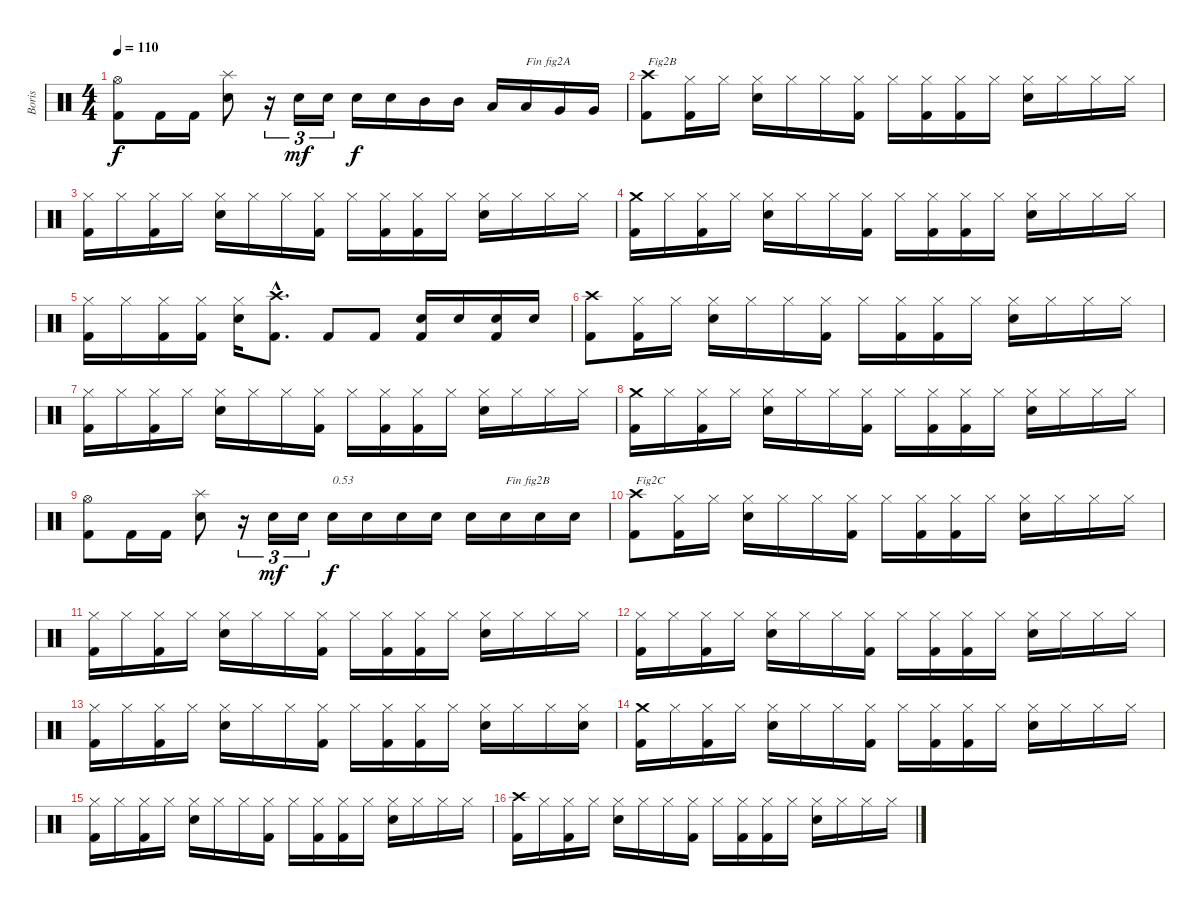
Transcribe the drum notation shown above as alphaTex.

\track ("Boris" "Boris") {instrument percussion}
\staff {score}
\articulation defaults
\ts (4 4)
\tempo 110
\clef neutral
\ks c
("Kick (hit) 2" "Hi-Hat (open)").8{dy f} "Kick (hit) 2".16 "Kick (hit) 2".16 ("Electric Snare (hit)" "Splash (hit)").8 r.16{tu (3 2)} "Electric Snare (hit)".16{tu (3 2) dy mf} "Electric Snare (hit)".16{tu (3 2)} "Electric Snare (hit)".16{dy f} "Electric Snare (hit)".16 "Mid Tom (hit)".16 "Mid Tom (hit)".16 "Low Tom (hit)".16 "Low Tom (hit)".16{txt "Fin fig2A"} "Very Low Tom (hit)".16 "Very Low Tom (hit)".16 |
("Kick (hit) 2" "Crash high (hit)").8{txt "Fig2B"} ("Kick (hit) 2" "Hi-Hat (closed)").16 "Hi-Hat (closed)".16 ("Electric Snare (hit)" "Hi-Hat (closed)").16 "Hi-Hat (closed)".16 "Hi-Hat (closed)".16 ("Kick (hit) 2" "Hi-Hat (closed)").16 "Hi-Hat (closed)".16 ("Kick (hit) 2" "Hi-Hat (closed)").16 ("Kick (hit) 2" "Hi-Hat (closed)").16 "Hi-Hat (closed)".16 ("Electric Snare (hit)" "Hi-Hat (closed)").16 "Hi-Hat (closed)".16 "Hi-Hat (closed)".16 "Hi-Hat (closed)".16 |
("Kick (hit) 2" "Hi-Hat (closed)").16 "Hi-Hat (closed)".16 ("Kick (hit) 2" "Hi-Hat (closed)").16 "Hi-Hat (closed)".16 ("Electric Snare (hit)" "Hi-Hat (closed)").16 "Hi-Hat (closed)".16 "Hi-Hat (closed)".16 ("Kick (hit) 2" "Hi-Hat (closed)").16 "Hi-Hat (closed)".16 ("Kick (hit) 2" "Hi-Hat (closed)").16 ("Kick (hit) 2" "Hi-Hat (closed)").16 "Hi-Hat (closed)".16 ("Electric Snare (hit)" "Hi-Hat (closed)").16 "Hi-Hat (closed)".16 "Hi-Hat (closed)".16 "Hi-Hat (closed)".16 |
("Kick (hit) 2" "Crash medium (hit)").16 "Hi-Hat (closed)".16 ("Kick (hit) 2" "Hi-Hat (closed)").16 "Hi-Hat (closed)".16 ("Electric Snare (hit)" "Hi-Hat (closed)").16 "Hi-Hat (closed)".16 "Hi-Hat (closed)".16 ("Kick (hit) 2" "Hi-Hat (closed)").16 "Hi-Hat (closed)".16 ("Kick (hit) 2" "Hi-Hat (closed)").16 ("Kick (hit) 2" "Hi-Hat (closed)").16 "Hi-Hat (closed)".16 ("Electric Snare (hit)" "Hi-Hat (closed)").16 "Hi-Hat (closed)".16 "Hi-Hat (closed)".16 "Hi-Hat (closed)".16 |
("Kick (hit) 2" "Hi-Hat (closed)").16 "Hi-Hat (closed)".16 ("Kick (hit) 2" "Hi-Hat (closed)").16 ("Kick (hit) 2" "Hi-Hat (closed)").16 ("Electric Snare (hit)" "Hi-Hat (closed)").16 ("Kick (hit) 2"{hac} "Crash high (hit)"{hac}).8{d} "Kick (hit) 2".8 "Kick (hit) 2".8 ("Kick (hit) 2" "Electric Snare (hit)").16 "Electric Snare (hit)".16 ("Kick (hit) 2" "Electric Snare (hit)").16 "Electric Snare (hit)".16 |
("Kick (hit) 2" "Crash high (hit)").8 ("Kick (hit) 2" "Hi-Hat (closed)").16 "Hi-Hat (closed)".16 ("Electric Snare (hit)" "Hi-Hat (closed)").16 "Hi-Hat (closed)".16 "Hi-Hat (closed)".16 ("Kick (hit) 2" "Hi-Hat (closed)").16 "Hi-Hat (closed)".16 ("Kick (hit) 2" "Hi-Hat (closed)").16 ("Kick (hit) 2" "Hi-Hat (closed)").16 "Hi-Hat (closed)".16 ("Electric Snare (hit)" "Hi-Hat (closed)").16 "Hi-Hat (closed)".16 "Hi-Hat (closed)".16 "Hi-Hat (closed)".16 |
("Kick (hit) 2" "Hi-Hat (closed)").16 "Hi-Hat (closed)".16 ("Kick (hit) 2" "Hi-Hat (closed)").16 "Hi-Hat (closed)".16 ("Electric Snare (hit)" "Hi-Hat (closed)").16 "Hi-Hat (closed)".16 "Hi-Hat (closed)".16 ("Kick (hit) 2" "Hi-Hat (closed)").16 "Hi-Hat (closed)".16 ("Kick (hit) 2" "Hi-Hat (closed)").16 ("Kick (hit) 2" "Hi-Hat (closed)").16 "Hi-Hat (closed)".16 ("Electric Snare (hit)" "Hi-Hat (closed)").16 "Hi-Hat (closed)".16 "Hi-Hat (closed)".16 "Hi-Hat (closed)".16 |
("Kick (hit) 2" "Crash medium (hit)").16 "Hi-Hat (closed)".16 ("Kick (hit) 2" "Hi-Hat (closed)").16 "Hi-Hat (closed)".16 ("Electric Snare (hit)" "Hi-Hat (closed)").16 "Hi-Hat (closed)".16 "Hi-Hat (closed)".16 ("Kick (hit) 2" "Hi-Hat (closed)").16 "Hi-Hat (closed)".16 ("Kick (hit) 2" "Hi-Hat (closed)").16 ("Kick (hit) 2" "Hi-Hat (closed)").16 "Hi-Hat (closed)".16 ("Electric Snare (hit)" "Hi-Hat (closed)").16 "Hi-Hat (closed)".16 "Hi-Hat (closed)".16 "Hi-Hat (closed)".16 |
("Kick (hit) 2" "Hi-Hat (open)").8 "Kick (hit) 2".16 "Kick (hit) 2".16 ("Electric Snare (hit)" "Splash (hit)").8 r.16{tu (3 2)} "Electric Snare (hit)".16{tu (3 2) dy mf} "Electric Snare (hit)".16{tu (3 2)} "Electric Snare (hit)".16{txt "0.53" dy f} "Electric Snare (hit)".16 "Electric Snare (hit)".16 "Electric Snare (hit)".16 "Electric Snare (hit)".16 "Electric Snare (hit)".16{txt "Fin fig2B"} "Electric Snare (hit)".16 "Electric Snare (hit)".16 |
("Kick (hit) 2" "Crash high (hit)").8{txt "Fig2C"} ("Kick (hit) 2" "Hi-Hat (closed)").16 "Hi-Hat (closed)".16 ("Electric Snare (hit)" "Hi-Hat (closed)").16 "Hi-Hat (closed)".16 "Hi-Hat (closed)".16 ("Kick (hit) 2" "Hi-Hat (closed)").16 "Hi-Hat (closed)".16 ("Kick (hit) 2" "Hi-Hat (closed)").16 ("Kick (hit) 2" "Hi-Hat (closed)").16 "Hi-Hat (closed)".16 ("Electric Snare (hit)" "Hi-Hat (closed)").16 "Hi-Hat (closed)".16 "Hi-Hat (closed)".16 "Hi-Hat (closed)".16 |
("Kick (hit) 2" "Hi-Hat (closed)").16 "Hi-Hat (closed)".16 ("Kick (hit) 2" "Hi-Hat (closed)").16 "Hi-Hat (closed)".16 ("Electric Snare (hit)" "Hi-Hat (closed)").16 "Hi-Hat (closed)".16 "Hi-Hat (closed)".16 ("Kick (hit) 2" "Hi-Hat (closed)").16 "Hi-Hat (closed)".16 ("Kick (hit) 2" "Hi-Hat (closed)").16 ("Kick (hit) 2" "Hi-Hat (closed)").16 "Hi-Hat (closed)".16 ("Electric Snare (hit)" "Hi-Hat (closed)").16 "Hi-Hat (closed)".16 "Hi-Hat (closed)".16 "Hi-Hat (closed)".16 |
("Kick (hit) 2" "Hi-Hat (closed)").16 "Hi-Hat (closed)".16 ("Kick (hit) 2" "Hi-Hat (closed)").16 "Hi-Hat (closed)".16 ("Electric Snare (hit)" "Hi-Hat (closed)").16 "Hi-Hat (closed)".16 "Hi-Hat (closed)".16 ("Kick (hit) 2" "Hi-Hat (closed)").16 "Hi-Hat (closed)".16 ("Kick (hit) 2" "Hi-Hat (closed)").16 ("Kick (hit) 2" "Hi-Hat (closed)").16 "Hi-Hat (closed)".16 ("Electric Snare (hit)" "Hi-Hat (closed)").16 "Hi-Hat (closed)".16 "Hi-Hat (closed)".16 "Hi-Hat (closed)".16 |
("Kick (hit) 2" "Hi-Hat (closed)").16 "Hi-Hat (closed)".16 ("Kick (hit) 2" "Hi-Hat (closed)").16 "Hi-Hat (closed)".16 ("Electric Snare (hit)" "Hi-Hat (closed)").16 "Hi-Hat (closed)".16 "Hi-Hat (closed)".16 ("Kick (hit) 2" "Hi-Hat (closed)").16 "Hi-Hat (closed)".16 ("Kick (hit) 2" "Hi-Hat (closed)").16 ("Kick (hit) 2" "Hi-Hat (closed)").16 "Hi-Hat (closed)".16 ("Electric Snare (hit)" "Hi-Hat (closed)").16 "Hi-Hat (closed)".16 "Hi-Hat (closed)".16 ("Electric Snare (hit)" "Hi-Hat (closed)").16 |
("Kick (hit) 2" "Crash medium (hit)").16 "Hi-Hat (closed)".16 ("Kick (hit) 2" "Hi-Hat (closed)").16 "Hi-Hat (closed)".16 ("Electric Snare (hit)" "Hi-Hat (closed)").16 "Hi-Hat (closed)".16 "Hi-Hat (closed)".16 ("Kick (hit) 2" "Hi-Hat (closed)").16 "Hi-Hat (closed)".16 ("Kick (hit) 2" "Hi-Hat (closed)").16 ("Kick (hit) 2" "Hi-Hat (closed)").16 "Hi-Hat (closed)".16 ("Electric Snare (hit)" "Hi-Hat (closed)").16 "Hi-Hat (closed)".16 "Hi-Hat (closed)".16 "Hi-Hat (closed)".16 |
("Kick (hit) 2" "Hi-Hat (closed)").16 "Hi-Hat (closed)".16 ("Kick (hit) 2" "Hi-Hat (closed)").16 "Hi-Hat (closed)".16 ("Electric Snare (hit)" "Hi-Hat (closed)").16 "Hi-Hat (closed)".16 "Hi-Hat (closed)".16 ("Kick (hit) 2" "Hi-Hat (closed)").16 "Hi-Hat (closed)".16 ("Kick (hit) 2" "Hi-Hat (closed)").16 ("Kick (hit) 2" "Hi-Hat (closed)").16 "Hi-Hat (closed)".16 ("Electric Snare (hit)" "Hi-Hat (closed)").16 "Hi-Hat (closed)".16 "Hi-Hat (closed)".16 "Hi-Hat (closed)".16 |
("Kick (hit) 2" "Crash high (hit)").16 "Hi-Hat (closed)".16 ("Kick (hit) 2" "Hi-Hat (closed)").16 "Hi-Hat (closed)".16 ("Electric Snare (hit)" "Hi-Hat (closed)").16 "Hi-Hat (closed)".16 "Hi-Hat (closed)".16 ("Kick (hit) 2" "Hi-Hat (closed)").16 "Hi-Hat (closed)".16 ("Kick (hit) 2" "Hi-Hat (closed)").16 ("Kick (hit) 2" "Hi-Hat (closed)").16 "Hi-Hat (closed)".16 ("Electric Snare (hit)" "Hi-Hat (closed)").16 "Hi-Hat (closed)".16 "Hi-Hat (closed)".16 "Hi-Hat (closed)".16
